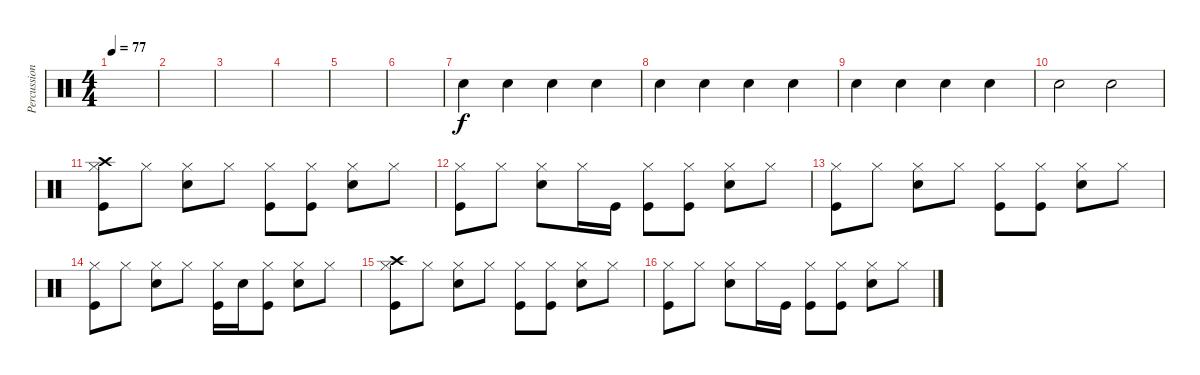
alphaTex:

\track ("Percussion" "Percussion") {instrument percussion}
\staff {score}
\articulation defaults
\ts (4 4)
\tempo 77
\clef neutral
\ks c
|
|
|
|
|
|
"Electric Snare (hit)".4 "Electric Snare (hit)".4 "Electric Snare (hit)".4 "Electric Snare (hit)".4 |
"Electric Snare (hit)".4 "Electric Snare (hit)".4 "Electric Snare (hit)".4 "Electric Snare (hit)".4 |
"Electric Snare (hit)".4 "Electric Snare (hit)".4 "Electric Snare (hit)".4 "Electric Snare (hit)".4 |
"Electric Snare (hit)".2 "Electric Snare (hit)".2 |
("Crash high (hit)" "Hi-Hat (closed)" "Kick (hit)").8{dy f} "Hi-Hat (closed)".8 ("Hi-Hat (closed)" "Electric Snare (hit)").8 "Hi-Hat (closed)".8 ("Hi-Hat (closed)" "Kick (hit)").8 ("Hi-Hat (closed)" "Kick (hit)").8 ("Hi-Hat (closed)" "Electric Snare (hit)").8 "Hi-Hat (closed)".8 |
("Hi-Hat (closed)" "Kick (hit)").8 "Hi-Hat (closed)".8 ("Hi-Hat (closed)" "Electric Snare (hit)").8 "Hi-Hat (closed)".16 "Kick (hit)".16 ("Hi-Hat (closed)" "Kick (hit)").8 ("Hi-Hat (closed)" "Kick (hit)").8 ("Hi-Hat (closed)" "Electric Snare (hit)").8 "Hi-Hat (closed)".8 |
("Hi-Hat (closed)" "Kick (hit)").8 "Hi-Hat (closed)".8 ("Hi-Hat (closed)" "Electric Snare (hit)").8 "Hi-Hat (closed)".8 ("Hi-Hat (closed)" "Kick (hit)").8 ("Hi-Hat (closed)" "Kick (hit)").8 ("Hi-Hat (closed)" "Electric Snare (hit)").8 "Hi-Hat (closed)".8 |
("Hi-Hat (closed)" "Kick (hit)").8 "Hi-Hat (closed)".8 ("Hi-Hat (closed)" "Electric Snare (hit)").8 "Hi-Hat (closed)".8 ("Hi-Hat (closed)" "Kick (hit)").16 "Electric Snare (hit)".16 ("Hi-Hat (closed)" "Kick (hit)").8 ("Hi-Hat (closed)" "Electric Snare (hit)").8 "Hi-Hat (closed)".8 |
("Crash high (hit)" "Hi-Hat (closed)" "Kick (hit)").8 "Hi-Hat (closed)".8 ("Hi-Hat (closed)" "Electric Snare (hit)").8 "Hi-Hat (closed)".8 ("Hi-Hat (closed)" "Kick (hit)").8 ("Hi-Hat (closed)" "Kick (hit)").8 ("Hi-Hat (closed)" "Electric Snare (hit)").8 "Hi-Hat (closed)".8 |
("Hi-Hat (closed)" "Kick (hit)").8 "Hi-Hat (closed)".8 ("Hi-Hat (closed)" "Electric Snare (hit)").8 "Hi-Hat (closed)".16 "Kick (hit)".16 ("Hi-Hat (closed)" "Kick (hit)").8 ("Hi-Hat (closed)" "Kick (hit)").8 ("Hi-Hat (closed)" "Electric Snare (hit)").8 "Hi-Hat (closed)".8
